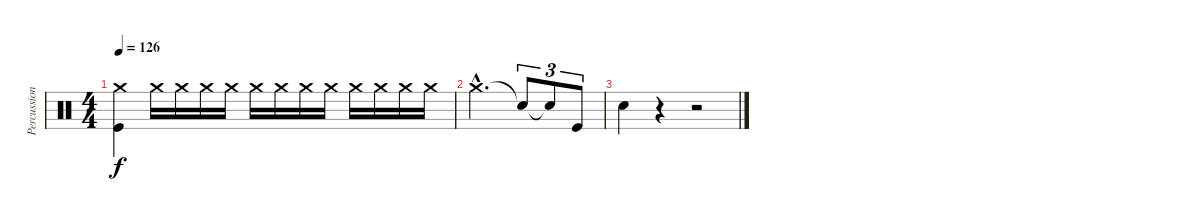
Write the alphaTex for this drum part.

\track ("Percussion" "Percussion") {instrument percussion}
\staff {score}
\articulation defaults
\ts (4 4)
\tempo 126
\clef neutral
\ks c
("Crash medium (hit)" "Kick (hit)").4{dy f} "Crash medium (hit)".16 "Crash medium (hit)".16 "Crash medium (hit)".16 "Crash medium (hit)".16 "Crash medium (hit)".16 "Crash medium (hit)".16 "Crash medium (hit)".16 "Crash medium (hit)".16 "Crash medium (hit)".16 "Crash medium (hit)".16 "Crash medium (hit)".16 "Crash medium (hit)".16 |
"Crash medium (hit)"{hac}.2{d} "Snare (hit)"{t}.8{tu (3 2)} "Snare (hit)"{t}.8{tu (3 2)} "Kick (hit)".8{tu (3 2)} |
"Snare (hit) 2".4 r.4 r.2
